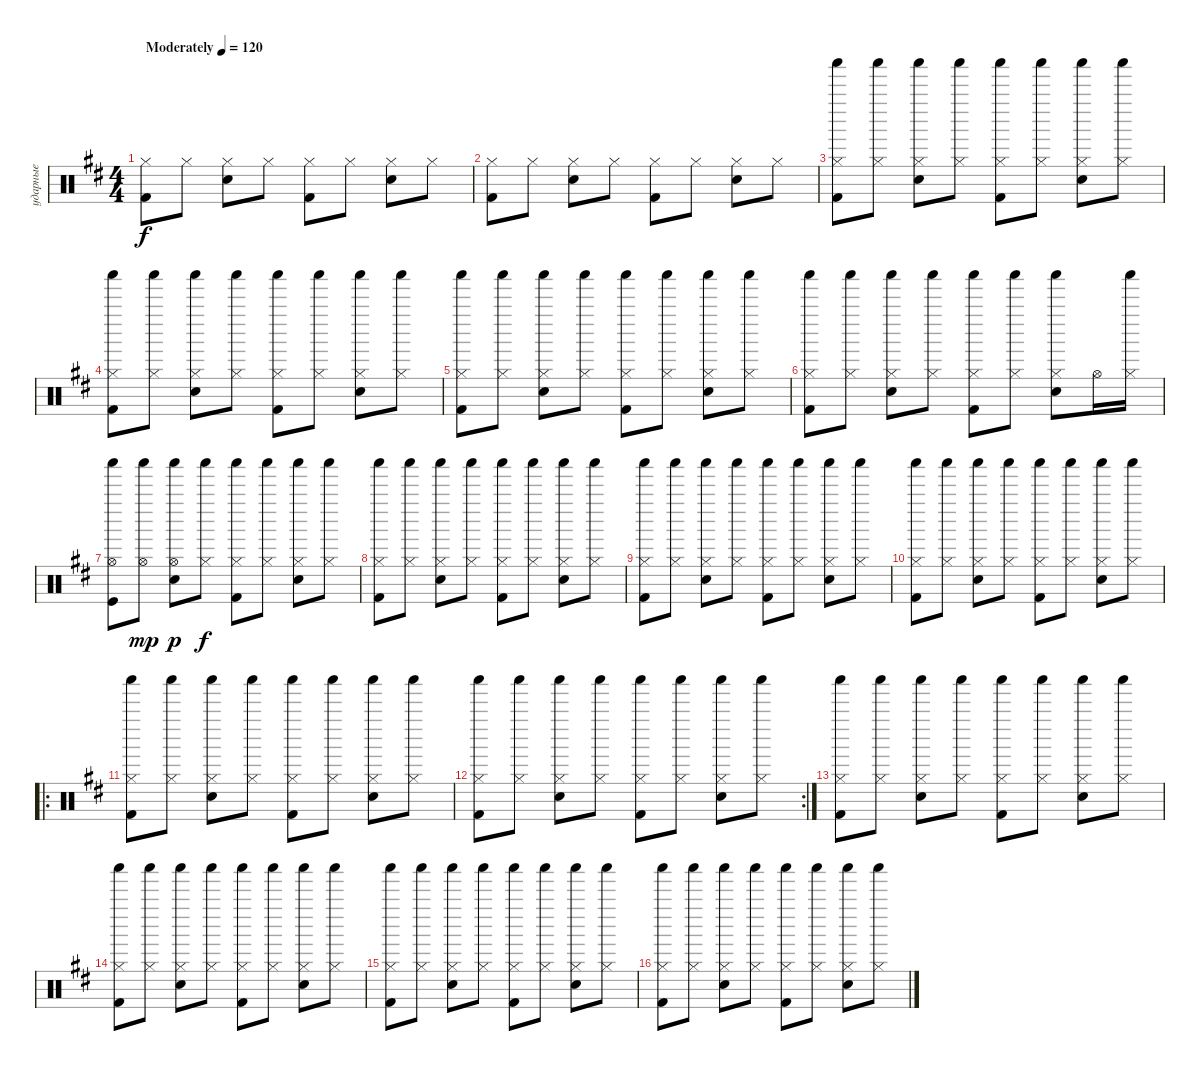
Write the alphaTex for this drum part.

\track ("ударные" "ударные") {instrument percussion}
\staff {score}
\articulation defaults
\ts (4 4)
\tempo (120 "Moderately")
\clef neutral
\ks bminor
("Hi-Hat (closed)" "Kick (hit) 2").8{dy f} "Hi-Hat (closed)".8 ("Hi-Hat (closed)" "Snare (hit) 2").8 "Hi-Hat (closed)".8 ("Hi-Hat (closed)" "Kick (hit) 2").8 "Hi-Hat (closed)".8 ("Hi-Hat (closed)" "Snare (hit) 2").8 "Hi-Hat (closed)".8 |
("Hi-Hat (closed)" "Kick (hit) 2").8 "Hi-Hat (closed)".8 ("Hi-Hat (closed)" "Snare (hit) 2").8 "Hi-Hat (closed)".8 ("Hi-Hat (closed)" "Kick (hit) 2").8 "Hi-Hat (closed)".8 ("Hi-Hat (closed)" "Snare (hit) 2").8 "Hi-Hat (closed)".8 |
("Hi-Hat (closed)" "Shaker (hit)" "Kick (hit) 2").8 ("Hi-Hat (closed)" "Shaker (hit)").8 ("Hi-Hat (closed)" "Shaker (hit)" "Snare (hit) 2").8 ("Hi-Hat (closed)" "Shaker (hit)").8 ("Hi-Hat (closed)" "Shaker (hit)" "Kick (hit) 2").8 ("Hi-Hat (closed)" "Shaker (hit)").8 ("Hi-Hat (closed)" "Shaker (hit)" "Snare (hit) 2").8 ("Hi-Hat (closed)" "Shaker (hit)").8 |
("Hi-Hat (closed)" "Shaker (hit)" "Kick (hit) 2").8 ("Hi-Hat (closed)" "Shaker (hit)").8 ("Hi-Hat (closed)" "Shaker (hit)" "Snare (hit) 2").8 ("Hi-Hat (closed)" "Shaker (hit)").8 ("Hi-Hat (closed)" "Shaker (hit)" "Kick (hit) 2").8 ("Hi-Hat (closed)" "Shaker (hit)").8 ("Hi-Hat (closed)" "Shaker (hit)" "Snare (hit) 2").8 ("Hi-Hat (closed)" "Shaker (hit)").8 |
("Hi-Hat (closed)" "Shaker (hit)" "Kick (hit) 2").8 ("Hi-Hat (closed)" "Shaker (hit)").8 ("Hi-Hat (closed)" "Shaker (hit)" "Snare (hit) 2").8 ("Hi-Hat (closed)" "Shaker (hit)").8 ("Hi-Hat (closed)" "Shaker (hit)" "Kick (hit) 2").8 ("Hi-Hat (closed)" "Shaker (hit)").8 ("Hi-Hat (closed)" "Shaker (hit)" "Snare (hit) 2").8 ("Hi-Hat (closed)" "Shaker (hit)").8 |
("Hi-Hat (closed)" "Shaker (hit)" "Kick (hit) 2").8 ("Hi-Hat (closed)" "Shaker (hit)").8 ("Hi-Hat (closed)" "Shaker (hit)" "Snare (hit) 2").8 ("Hi-Hat (closed)" "Shaker (hit)").8 ("Hi-Hat (closed)" "Shaker (hit)" "Kick (hit) 2").8 ("Hi-Hat (closed)" "Shaker (hit)").8 ("Hi-Hat (closed)" "Shaker (hit)" "Snare (hit) 2").8 "Hi-Hat (open)".16 ("Hi-Hat (closed)" "Shaker (hit)").16 |
("Kick (hit)" "Shaker (hit)" "Hi-Hat (open)").8 ("Shaker (hit)" "Hi-Hat (open)").8{dy mp} ("Snare (hit) 2" "Shaker (hit)" "Hi-Hat (open)").8{dy p} ("Hi-Hat (closed)" "Shaker (hit)").8{dy f} ("Hi-Hat (closed)" "Shaker (hit)" "Kick (hit) 2").8 ("Hi-Hat (closed)" "Shaker (hit)").8 ("Hi-Hat (closed)" "Shaker (hit)" "Snare (hit) 2").8 ("Hi-Hat (closed)" "Shaker (hit)").8 |
("Hi-Hat (closed)" "Shaker (hit)" "Kick (hit) 2").8 ("Hi-Hat (closed)" "Shaker (hit)").8 ("Hi-Hat (closed)" "Shaker (hit)" "Snare (hit) 2").8 ("Hi-Hat (closed)" "Shaker (hit)").8 ("Hi-Hat (closed)" "Shaker (hit)" "Kick (hit) 2").8 ("Hi-Hat (closed)" "Shaker (hit)").8 ("Hi-Hat (closed)" "Shaker (hit)" "Snare (hit) 2").8 ("Hi-Hat (closed)" "Shaker (hit)").8 |
("Hi-Hat (closed)" "Shaker (hit)" "Kick (hit) 2").8 ("Hi-Hat (closed)" "Shaker (hit)").8 ("Hi-Hat (closed)" "Shaker (hit)" "Snare (hit) 2").8 ("Hi-Hat (closed)" "Shaker (hit)").8 ("Hi-Hat (closed)" "Shaker (hit)" "Kick (hit) 2").8 ("Hi-Hat (closed)" "Shaker (hit)").8 ("Hi-Hat (closed)" "Shaker (hit)" "Snare (hit) 2").8 ("Hi-Hat (closed)" "Shaker (hit)").8 |
("Hi-Hat (closed)" "Shaker (hit)" "Kick (hit) 2").8 ("Hi-Hat (closed)" "Shaker (hit)").8 ("Hi-Hat (closed)" "Shaker (hit)" "Snare (hit) 2").8 ("Hi-Hat (closed)" "Shaker (hit)").8 ("Hi-Hat (closed)" "Shaker (hit)" "Kick (hit) 2").8 ("Hi-Hat (closed)" "Shaker (hit)").8 ("Hi-Hat (closed)" "Shaker (hit)" "Snare (hit) 2").8 ("Hi-Hat (closed)" "Shaker (hit)").8 |
\ro
("Hi-Hat (closed)" "Shaker (hit)" "Kick (hit) 2").8 ("Hi-Hat (closed)" "Shaker (hit)").8 ("Hi-Hat (closed)" "Shaker (hit)" "Snare (hit) 2").8 ("Hi-Hat (closed)" "Shaker (hit)").8 ("Hi-Hat (closed)" "Shaker (hit)" "Kick (hit) 2").8 ("Hi-Hat (closed)" "Shaker (hit)").8 ("Hi-Hat (closed)" "Shaker (hit)" "Snare (hit) 2").8 ("Hi-Hat (closed)" "Shaker (hit)").8 |
\rc 2
("Hi-Hat (closed)" "Shaker (hit)" "Kick (hit) 2").8 ("Hi-Hat (closed)" "Shaker (hit)").8 ("Hi-Hat (closed)" "Shaker (hit)" "Snare (hit) 2").8 ("Hi-Hat (closed)" "Shaker (hit)").8 ("Hi-Hat (closed)" "Shaker (hit)" "Kick (hit) 2").8 ("Hi-Hat (closed)" "Shaker (hit)").8 ("Hi-Hat (closed)" "Shaker (hit)" "Snare (hit) 2").8 ("Hi-Hat (closed)" "Shaker (hit)").8 |
("Hi-Hat (closed)" "Shaker (hit)" "Kick (hit) 2").8 ("Hi-Hat (closed)" "Shaker (hit)").8 ("Hi-Hat (closed)" "Shaker (hit)" "Snare (hit) 2").8 ("Hi-Hat (closed)" "Shaker (hit)").8 ("Hi-Hat (closed)" "Shaker (hit)" "Kick (hit) 2").8 ("Hi-Hat (closed)" "Shaker (hit)").8 ("Hi-Hat (closed)" "Shaker (hit)" "Snare (hit) 2").8 ("Hi-Hat (closed)" "Shaker (hit)").8 |
("Hi-Hat (closed)" "Shaker (hit)" "Kick (hit) 2").8 ("Hi-Hat (closed)" "Shaker (hit)").8 ("Hi-Hat (closed)" "Shaker (hit)" "Snare (hit) 2").8 ("Hi-Hat (closed)" "Shaker (hit)").8 ("Hi-Hat (closed)" "Shaker (hit)" "Kick (hit) 2").8 ("Hi-Hat (closed)" "Shaker (hit)").8 ("Hi-Hat (closed)" "Shaker (hit)" "Snare (hit) 2").8 ("Hi-Hat (closed)" "Shaker (hit)").8 |
("Hi-Hat (closed)" "Shaker (hit)" "Kick (hit) 2").8 ("Hi-Hat (closed)" "Shaker (hit)").8 ("Hi-Hat (closed)" "Shaker (hit)" "Snare (hit) 2").8 ("Hi-Hat (closed)" "Shaker (hit)").8 ("Hi-Hat (closed)" "Shaker (hit)" "Kick (hit) 2").8 ("Hi-Hat (closed)" "Shaker (hit)").8 ("Hi-Hat (closed)" "Shaker (hit)" "Snare (hit) 2").8 ("Hi-Hat (closed)" "Shaker (hit)").8 |
("Hi-Hat (closed)" "Shaker (hit)" "Kick (hit) 2").8 ("Hi-Hat (closed)" "Shaker (hit)").8 ("Hi-Hat (closed)" "Shaker (hit)" "Snare (hit) 2").8 ("Hi-Hat (closed)" "Shaker (hit)").8 ("Hi-Hat (closed)" "Shaker (hit)" "Kick (hit) 2").8 ("Hi-Hat (closed)" "Shaker (hit)").8 ("Hi-Hat (closed)" "Shaker (hit)" "Snare (hit) 2").8 ("Hi-Hat (closed)" "Shaker (hit)").8
